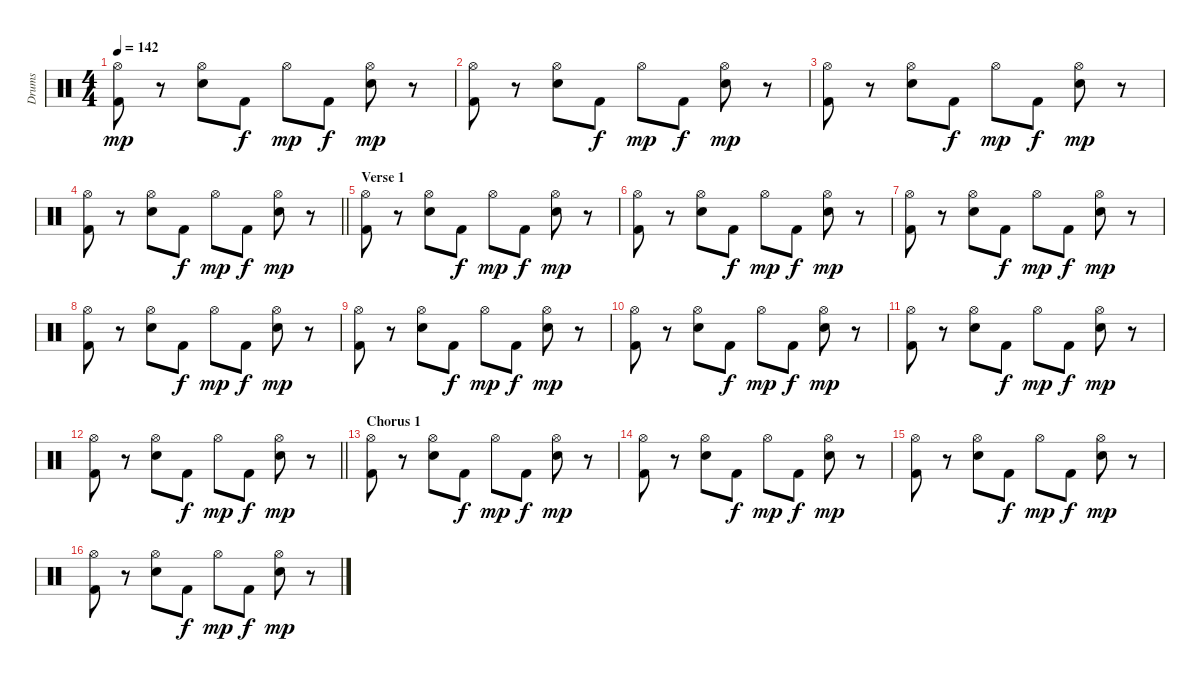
\track ("Drums" "Drums") {instrument percussion}
\staff {score}
\articulation defaults
\ts (4 4)
\tempo 142
\clef neutral
\ks c
("Hi-Hat (open)" "Kick (hit) 2").8{dy mp} r.8 ("Hi-Hat (open)" "Snare (hit) 2").8 "Kick (hit) 2".8{dy f} "Hi-Hat (open)".8{dy mp} "Kick (hit) 2".8{dy f} ("Hi-Hat (open)" "Snare (hit) 2").8{dy mp} r.8 |
("Hi-Hat (open)" "Kick (hit) 2").8 r.8 ("Hi-Hat (open)" "Snare (hit) 2").8 "Kick (hit) 2".8{dy f} "Hi-Hat (open)".8{dy mp} "Kick (hit) 2".8{dy f} ("Hi-Hat (open)" "Snare (hit) 2").8{dy mp} r.8 |
("Hi-Hat (open)" "Kick (hit) 2").8 r.8 ("Hi-Hat (open)" "Snare (hit) 2").8 "Kick (hit) 2".8{dy f} "Hi-Hat (open)".8{dy mp} "Kick (hit) 2".8{dy f} ("Hi-Hat (open)" "Snare (hit) 2").8{dy mp} r.8 |
\barLineRight lightlight
("Hi-Hat (open)" "Kick (hit) 2").8 r.8 ("Hi-Hat (open)" "Snare (hit) 2").8 "Kick (hit) 2".8{dy f} "Hi-Hat (open)".8{dy mp} "Kick (hit) 2".8{dy f} ("Hi-Hat (open)" "Snare (hit) 2").8{dy mp} r.8 |
\section ("" "Verse 1")
("Hi-Hat (open)" "Kick (hit) 2").8 r.8 ("Hi-Hat (open)" "Snare (hit) 2").8 "Kick (hit) 2".8{dy f} "Hi-Hat (open)".8{dy mp} "Kick (hit) 2".8{dy f} ("Hi-Hat (open)" "Snare (hit) 2").8{dy mp} r.8 |
("Hi-Hat (open)" "Kick (hit) 2").8 r.8 ("Hi-Hat (open)" "Snare (hit) 2").8 "Kick (hit) 2".8{dy f} "Hi-Hat (open)".8{dy mp} "Kick (hit) 2".8{dy f} ("Hi-Hat (open)" "Snare (hit) 2").8{dy mp} r.8 |
("Hi-Hat (open)" "Kick (hit) 2").8 r.8 ("Hi-Hat (open)" "Snare (hit) 2").8 "Kick (hit) 2".8{dy f} "Hi-Hat (open)".8{dy mp} "Kick (hit) 2".8{dy f} ("Hi-Hat (open)" "Snare (hit) 2").8{dy mp} r.8 |
("Hi-Hat (open)" "Kick (hit) 2").8 r.8 ("Hi-Hat (open)" "Snare (hit) 2").8 "Kick (hit) 2".8{dy f} "Hi-Hat (open)".8{dy mp} "Kick (hit) 2".8{dy f} ("Hi-Hat (open)" "Snare (hit) 2").8{dy mp} r.8 |
("Hi-Hat (open)" "Kick (hit) 2").8 r.8 ("Hi-Hat (open)" "Snare (hit) 2").8 "Kick (hit) 2".8{dy f} "Hi-Hat (open)".8{dy mp} "Kick (hit) 2".8{dy f} ("Hi-Hat (open)" "Snare (hit) 2").8{dy mp} r.8 |
("Hi-Hat (open)" "Kick (hit) 2").8 r.8 ("Hi-Hat (open)" "Snare (hit) 2").8 "Kick (hit) 2".8{dy f} "Hi-Hat (open)".8{dy mp} "Kick (hit) 2".8{dy f} ("Hi-Hat (open)" "Snare (hit) 2").8{dy mp} r.8 |
("Hi-Hat (open)" "Kick (hit) 2").8 r.8 ("Hi-Hat (open)" "Snare (hit) 2").8 "Kick (hit) 2".8{dy f} "Hi-Hat (open)".8{dy mp} "Kick (hit) 2".8{dy f} ("Hi-Hat (open)" "Snare (hit) 2").8{dy mp} r.8 |
\barLineRight lightlight
("Hi-Hat (open)" "Kick (hit) 2").8 r.8 ("Hi-Hat (open)" "Snare (hit) 2").8 "Kick (hit) 2".8{dy f} "Hi-Hat (open)".8{dy mp} "Kick (hit) 2".8{dy f} ("Hi-Hat (open)" "Snare (hit) 2").8{dy mp} r.8 |
\section ("" "Chorus 1")
("Hi-Hat (open)" "Kick (hit) 2").8 r.8 ("Hi-Hat (open)" "Snare (hit) 2").8 "Kick (hit) 2".8{dy f} "Hi-Hat (open)".8{dy mp} "Kick (hit) 2".8{dy f} ("Hi-Hat (open)" "Snare (hit) 2").8{dy mp} r.8 |
("Hi-Hat (open)" "Kick (hit) 2").8 r.8 ("Hi-Hat (open)" "Snare (hit) 2").8 "Kick (hit) 2".8{dy f} "Hi-Hat (open)".8{dy mp} "Kick (hit) 2".8{dy f} ("Hi-Hat (open)" "Snare (hit) 2").8{dy mp} r.8 |
("Hi-Hat (open)" "Kick (hit) 2").8 r.8 ("Hi-Hat (open)" "Snare (hit) 2").8 "Kick (hit) 2".8{dy f} "Hi-Hat (open)".8{dy mp} "Kick (hit) 2".8{dy f} ("Hi-Hat (open)" "Snare (hit) 2").8{dy mp} r.8 |
("Hi-Hat (open)" "Kick (hit) 2").8 r.8 ("Hi-Hat (open)" "Snare (hit) 2").8 "Kick (hit) 2".8{dy f} "Hi-Hat (open)".8{dy mp} "Kick (hit) 2".8{dy f} ("Hi-Hat (open)" "Snare (hit) 2").8{dy mp} r.8
